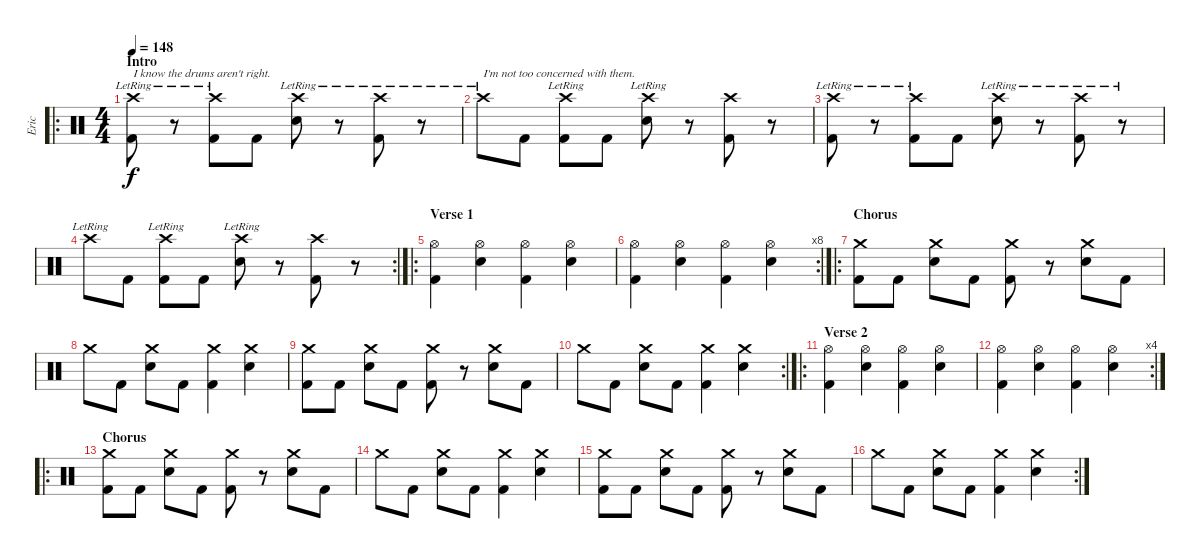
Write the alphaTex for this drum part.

\track ("Eric" "Eric") {instrument percussion}
\staff {score}
\articulation defaults
\ro
\ts (4 4)
\section ("" "Intro")
\tempo 148
\clef neutral
\ks c
("Crash high (hit)"{lr} "Kick (hit) 2").8{txt "I know the drums aren't right." dy f} r.8 ("Crash high (hit)"{lr} "Kick (hit) 2").8 "Kick (hit) 2".8 ("Crash high (hit)"{lr} "Electric Snare (hit)").8 r.8 ("Crash high (hit)"{lr} "Kick (hit) 2").8 r.8 |
"Crash high (hit)"{lr}.8{txt "I'm not too concerned with them."} "Kick (hit) 2".8 ("Crash high (hit)"{lr} "Kick (hit) 2").8 "Kick (hit) 2".8 ("Crash high (hit)"{lr} "Electric Snare (hit)").8 r.8 ("Crash high (hit)" "Kick (hit) 2").8 r.8 |
("Crash high (hit)"{lr} "Kick (hit) 2").8 r.8 ("Crash high (hit)"{lr} "Kick (hit) 2").8 "Kick (hit) 2".8 ("Crash high (hit)"{lr} "Electric Snare (hit)").8 r.8 ("Crash high (hit)"{lr} "Kick (hit) 2").8 r.8 |
\rc 2 "Crash high (hit)"{lr}.8 "Kick (hit) 2".8
("Crash high (hit)"{lr} "Kick (hit) 2").8 "Kick (hit) 2".8 ("Crash high (hit)"{lr} "Electric Snare (hit)").8 r.8 ("Crash high (hit)" "Kick (hit) 2").8 r.8 |
\ro
\section ("" "Verse 1")
("Hi-Hat (open)" "Kick (hit) 2").4 ("Hi-Hat (open)" "Electric Snare (hit)").4 ("Hi-Hat (open)" "Kick (hit) 2").4 ("Hi-Hat (open)" "Electric Snare (hit)").4 |
\rc 8
("Hi-Hat (open)" "Kick (hit) 2").4 ("Hi-Hat (open)" "Electric Snare (hit)").4 ("Hi-Hat (open)" "Kick (hit) 2").4 ("Hi-Hat (open)" "Electric Snare (hit)").4 |
\ro
\section ("" "Chorus")
("Crash medium (hit)" "Kick (hit) 2").8 "Kick (hit) 2".8 ("Crash medium (hit)" "Electric Snare (hit)").8 "Kick (hit) 2".8 ("Crash medium (hit)" "Kick (hit) 2").8 r.8 ("Crash medium (hit)" "Electric Snare (hit)").8 "Kick (hit) 2".8 |
"Crash medium (hit)".8 "Kick (hit) 2".8 ("Crash medium (hit)" "Electric Snare (hit)").8 "Kick (hit) 2".8 ("Crash medium (hit)" "Kick (hit) 2").4 ("Crash medium (hit)" "Electric Snare (hit)").4 |
("Crash medium (hit)" "Kick (hit) 2").8 "Kick (hit) 2".8 ("Crash medium (hit)" "Electric Snare (hit)").8 "Kick (hit) 2".8 ("Crash medium (hit)" "Kick (hit) 2").8 r.8 ("Crash medium (hit)" "Electric Snare (hit)").8 "Kick (hit) 2".8 |
\rc 2 "Crash medium (hit)".8 "Kick (hit) 2".8
("Crash medium (hit)" "Electric Snare (hit)").8 "Kick (hit) 2".8 ("Crash medium (hit)" "Kick (hit) 2").4 ("Crash medium (hit)" "Electric Snare (hit)").4 |
\ro
\section ("" "Verse 2")
("Hi-Hat (open)" "Kick (hit) 2").4 ("Hi-Hat (open)" "Electric Snare (hit)").4 ("Hi-Hat (open)" "Kick (hit) 2").4 ("Hi-Hat (open)" "Electric Snare (hit)").4 |
\rc 4
("Hi-Hat (open)" "Kick (hit) 2").4 ("Hi-Hat (open)" "Electric Snare (hit)").4 ("Hi-Hat (open)" "Kick (hit) 2").4 ("Hi-Hat (open)" "Electric Snare (hit)").4 |
\ro
\section ("" "Chorus")
("Crash medium (hit)" "Kick (hit) 2").8 "Kick (hit) 2".8 ("Crash medium (hit)" "Electric Snare (hit)").8 "Kick (hit) 2".8 ("Crash medium (hit)" "Kick (hit) 2").8 r.8 ("Crash medium (hit)" "Electric Snare (hit)").8 "Kick (hit) 2".8 |
"Crash medium (hit)".8 "Kick (hit) 2".8 ("Crash medium (hit)" "Electric Snare (hit)").8 "Kick (hit) 2".8 ("Crash medium (hit)" "Kick (hit) 2").4 ("Crash medium (hit)" "Electric Snare (hit)").4 |
("Crash medium (hit)" "Kick (hit) 2").8 "Kick (hit) 2".8 ("Crash medium (hit)" "Electric Snare (hit)").8 "Kick (hit) 2".8 ("Crash medium (hit)" "Kick (hit) 2").8 r.8 ("Crash medium (hit)" "Electric Snare (hit)").8 "Kick (hit) 2".8 |
\rc 2 "Crash medium (hit)".8 "Kick (hit) 2".8
("Crash medium (hit)" "Electric Snare (hit)").8 "Kick (hit) 2".8 ("Crash medium (hit)" "Kick (hit) 2").4 ("Crash medium (hit)" "Electric Snare (hit)").4
